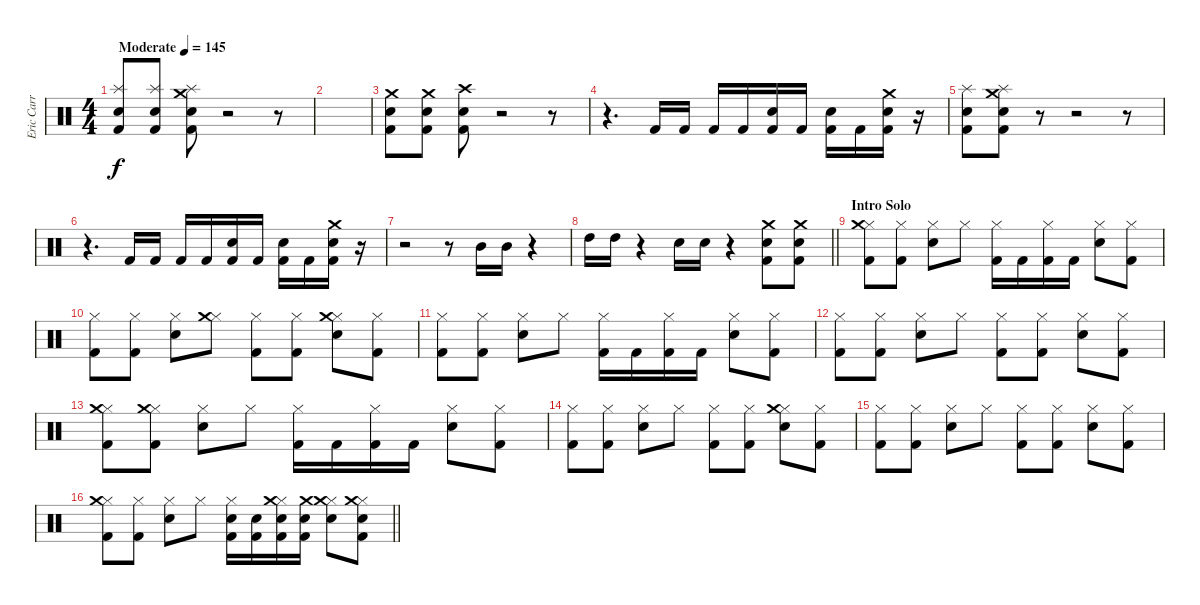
\track ("Eric Carr" "Eric Carr") {instrument percussion}
\staff {score}
\articulation defaults
\ts (4 4)
\tempo (145 "Moderate")
\clef neutral
\ks c
("Snare (hit) 2" "Splash (hit)" "Kick (hit) 2").8{dy f} ("Snare (hit) 2" "Splash (hit)" "Kick (hit) 2").8 ("Snare (hit) 2" "Splash (hit)" "Crash medium (hit)" "Kick (hit) 2").8 r.2 r.8 |
|
("Crash medium (hit)" "Snare (hit) 2" "Kick (hit) 2").8 ("Crash medium (hit)" "Snare (hit) 2" "Kick (hit) 2").8 ("Crash high (hit)" "Snare (hit) 2" "Kick (hit) 2").8 r.2 r.8 |
r.4{d} "Kick (hit) 2".16 "Kick (hit) 2".16 "Kick (hit) 2".16 "Kick (hit) 2".16 ("Snare (hit) 2" "Kick (hit) 2").16 "Kick (hit) 2".16 ("Snare (hit) 2" "Kick (hit) 2").16 "Kick (hit) 2".16 ("Crash medium (hit)" "Snare (hit) 2" "Kick (hit) 2").16 r.16 |
("Snare (hit) 2" "Splash (hit)" "Kick (hit) 2").8 ("Snare (hit) 2" "Splash (hit)" "Crash medium (hit)" "Kick (hit) 2").8 r.8 r.2 r.8 |
r.4{d} "Kick (hit) 2".16 "Kick (hit) 2".16 "Kick (hit) 2".16 "Kick (hit) 2".16 ("Snare (hit) 2" "Kick (hit) 2").16 "Kick (hit) 2".16 ("Snare (hit) 2" "Kick (hit) 2").16 "Kick (hit) 2".16 ("Crash medium (hit)" "Snare (hit) 2" "Kick (hit) 2").16 r.16 |
r.2 r.8 "Mid Tom (hit)".16 "Mid Tom (hit)".16 r.4 |
\barLineRight lightlight "High Tom (hit)".16 "High Tom (hit)".16
r.4 "Snare (hit) 2".16 "Snare (hit) 2".16 r.4 ("Snare (hit) 2" "Crash medium (hit)" "Kick (hit) 2").8 ("Snare (hit) 2" "Crash medium (hit)" "Kick (hit) 2").8 |
\section ("" "Intro Solo")
("Hi-Hat (closed)" "Crash medium (hit)" "Kick (hit) 2").8 ("Hi-Hat (closed)" "Kick (hit) 2").8 ("Hi-Hat (closed)" "Snare (hit) 2").8 "Hi-Hat (closed)".8 ("Hi-Hat (closed)" "Kick (hit) 2").16 "Kick (hit) 2".16 ("Hi-Hat (closed)" "Kick (hit) 2").16 "Kick (hit) 2".16 ("Hi-Hat (closed)" "Snare (hit) 2").8 ("Hi-Hat (closed)" "Kick (hit) 2").8 |
("Hi-Hat (closed)" "Kick (hit) 2").8 ("Hi-Hat (closed)" "Kick (hit) 2").8 ("Hi-Hat (closed)" "Snare (hit) 2").8 ("Hi-Hat (closed)" "Crash medium (hit)").8 ("Hi-Hat (closed)" "Kick (hit) 2").8 ("Hi-Hat (closed)" "Kick (hit) 2").8 ("Hi-Hat (closed)" "Snare (hit) 2" "Crash medium (hit)").8 ("Hi-Hat (closed)" "Kick (hit) 2").8 |
("Hi-Hat (closed)" "Kick (hit) 2").8 ("Hi-Hat (closed)" "Kick (hit) 2").8 ("Hi-Hat (closed)" "Snare (hit) 2").8 "Hi-Hat (closed)".8 ("Hi-Hat (closed)" "Kick (hit) 2").16 "Kick (hit) 2".16 ("Hi-Hat (closed)" "Kick (hit) 2").16 "Kick (hit) 2".16 ("Hi-Hat (closed)" "Snare (hit) 2").8 ("Hi-Hat (closed)" "Kick (hit) 2").8 |
("Hi-Hat (closed)" "Kick (hit) 2").8 ("Hi-Hat (closed)" "Kick (hit) 2").8 ("Hi-Hat (closed)" "Snare (hit) 2").8 "Hi-Hat (closed)".8 ("Hi-Hat (closed)" "Kick (hit) 2").8 ("Hi-Hat (closed)" "Kick (hit) 2").8 ("Hi-Hat (closed)" "Snare (hit) 2").8 ("Hi-Hat (closed)" "Kick (hit) 2").8 |
("Hi-Hat (closed)" "Crash medium (hit)" "Kick (hit) 2").8 ("Hi-Hat (closed)" "Crash medium (hit)" "Kick (hit) 2").8 ("Hi-Hat (closed)" "Snare (hit) 2").8 "Hi-Hat (closed)".8 ("Hi-Hat (closed)" "Kick (hit) 2").16 "Kick (hit) 2".16 ("Hi-Hat (closed)" "Kick (hit) 2").16 "Kick (hit) 2".16 ("Hi-Hat (closed)" "Snare (hit) 2").8 ("Hi-Hat (closed)" "Kick (hit) 2").8 |
("Hi-Hat (closed)" "Kick (hit) 2").8 ("Hi-Hat (closed)" "Kick (hit) 2").8 ("Hi-Hat (closed)" "Snare (hit) 2").8 "Hi-Hat (closed)".8 ("Hi-Hat (closed)" "Kick (hit) 2").8 ("Hi-Hat (closed)" "Kick (hit) 2").8 ("Hi-Hat (closed)" "Snare (hit) 2" "Crash medium (hit)").8 ("Hi-Hat (closed)" "Kick (hit) 2").8 |
("Hi-Hat (closed)" "Kick (hit) 2").8 ("Hi-Hat (closed)" "Kick (hit) 2").8 ("Hi-Hat (closed)" "Snare (hit) 2").8 "Hi-Hat (closed)".8 ("Hi-Hat (closed)" "Kick (hit) 2").8 ("Hi-Hat (closed)" "Kick (hit) 2").8 ("Hi-Hat (closed)" "Snare (hit) 2").8 ("Hi-Hat (closed)" "Kick (hit) 2").8 |
\barLineRight lightlight
("Hi-Hat (closed)" "Crash medium (hit)" "Kick (hit) 2").8 ("Hi-Hat (closed)" "Kick (hit) 2").8 ("Hi-Hat (closed)" "Snare (hit) 2").8 "Hi-Hat (closed)".8 ("Hi-Hat (closed)" "Snare (hit) 2" "Kick (hit) 2").16 ("Snare (hit) 2" "Kick (hit) 2").16 ("Hi-Hat (closed)" "Snare (hit) 2" "Crash medium (hit)" "Kick (hit) 2").16 ("Snare (hit) 2" "Crash medium (hit)" "Kick (hit) 2").16 ("Hi-Hat (closed)" "Snare (hit) 2" "Crash medium (hit)").8 ("Hi-Hat (closed)" "Snare (hit) 2" "Crash medium (hit)" "Kick (hit) 2").8
